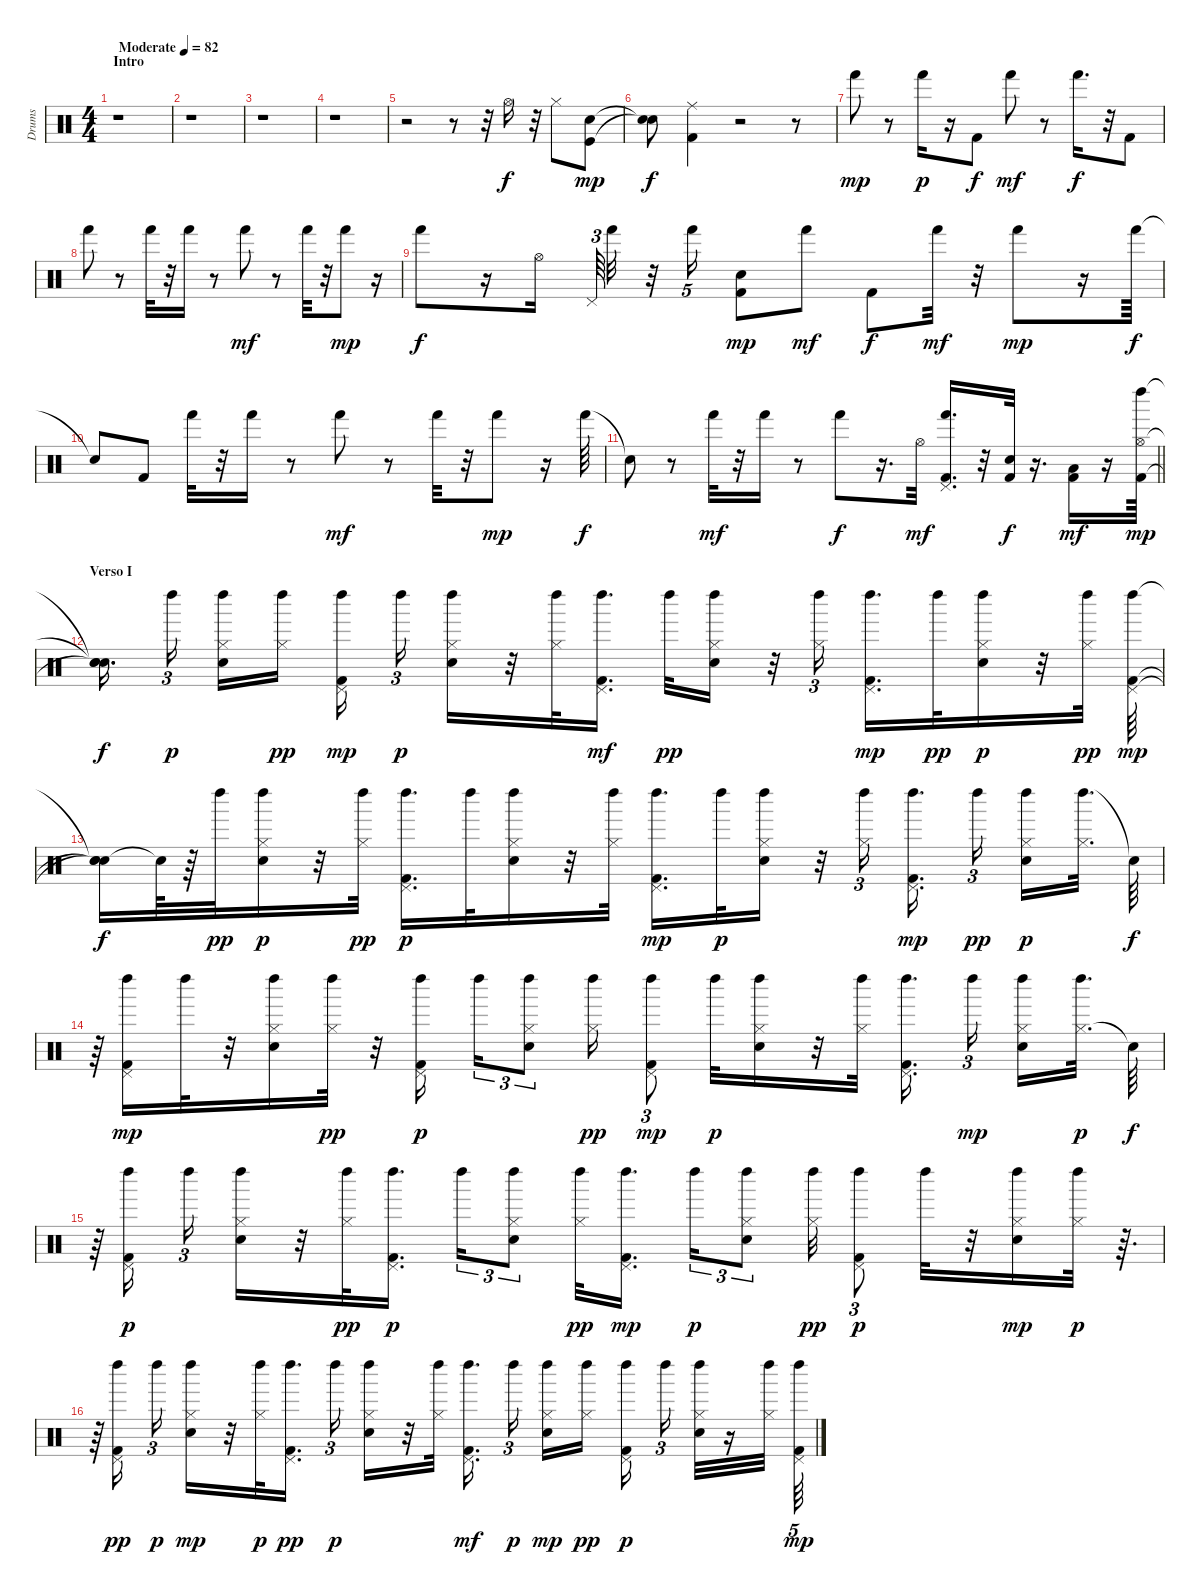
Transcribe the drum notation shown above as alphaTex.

\track ("Drums" "Drums") {instrument percussion}
\staff {score}
\articulation defaults
\ts (4 4)
\section ("" "Intro")
\tempo (82 "Moderate")
\clef neutral
\ks c
r.1{dy f} |
r.1 |
r.1 |
r.1 |
r.2 r.8 r.32 "Hi-Hat (open)".16 r.32 "Hi-Hat (closed)".8 ("Kick (hit)" "Electric Snare (hit)").8{dy mp} |
("Snare (hit)"{t} "Snare (hit)"{t}).8{dy f} ("Kick (hit) 2" "Ride (middle)").4 r.2 r.8 |
"Hand (hit)".8{dy mp} r.8 "Hand (hit)".16{dy p} r.16 "Kick (hit) 2".8{dy f} "Hand (hit)".8{dy mf} r.8 "Hand (hit)".16{d dy f} r.32 "Kick (hit) 2".8 |
"Hand (hit)".8 r.8 "Hand (hit)".32 r.32 "Hand (hit)".16 r.8 "Hand (hit)".8{dy mf} r.8 "Hand (hit)".32 r.32 "Hand (hit)".8{dy mp} r.16 |
"Hand (hit)".8{dy f} r.16 "Hi-Hat (open)".16 "Pedal Hi-Hat (hit)".64{tu (3 2)} "Hand (hit)".32 r.32 "Hand (hit)".16{tu (5 4)} ("Kick (hit) 2" "Electric Snare (hit)").8{dy mp} "Hand (hit)".8{dy mf} "Kick (hit) 2".8{dy f} "Hand (hit)".32{dy mf} r.32 "Hand (hit)".8{dy mp} r.16 "Hand (hit)".64{dy f} |
"Snare (hit)"{t}.8 "Kick (hit) 2".8 "Hand (hit)".32 r.32 "Hand (hit)".16 r.8 "Hand (hit)".8{dy mf} r.8 "Hand (hit)".32 r.32 "Hand (hit)".8{dy mp} r.16 "Hand (hit)".64{dy f} |
\barLineRight lightlight "Snare (hit)"{t}.8
r.8 "Hand (hit)".32{dy mf} r.32 "Hand (hit)".16 r.8 "Hand (hit)".8{dy f} r.16{d} "Hi-Hat (open)".32{dy mf} ("Kick (hit) 2" "Pedal Hi-Hat (hit)" "Hand (hit)").16{d} r.32 ("Electric Snare (hit)" "Kick (hit) 2").32{dy f} r.16{d} ("Low Tom (hit)" "Kick (hit) 2").16{dy mf} r.16 ("Hi-Hat (open)" "Kick (hit) 2" "Left Maraca (hit)").64{dy mp balance 2} |
\section ("" "Verso I")
("Snare (hit)"{t} "Snare (hit)"{t} "Snare (hit)"{t}).16{d dy f beam splitsecondary} "Left Maraca (hit)".16{tu (3 2) dy p beam splitsecondary} ("Hi-Hat (closed)" "Hand Clap (hit)" "Left Maraca (hit)").16 ("Left Maraca (hit)" "Hi-Hat (closed)").16{dy pp} ("Pedal Hi-Hat (hit)" "Left Maraca (hit)" "Kick (hit) 2").16{dy mp beam splitsecondary} "Left Maraca (hit)".16{tu (3 2) dy p} ("Hi-Hat (closed)" "Left Maraca (hit)" "Hand Clap (hit)").16 r.32 ("Hi-Hat (closed)" "Left Maraca (hit)").32 ("Pedal Hi-Hat (hit)" "Left Maraca (hit)" "Kick (hit) 2").16{d dy mf} "Left Maraca (hit)".32{dy pp} ("Hi-Hat (closed)" "Left Maraca (hit)" "Hand Clap (hit)").16 r.32 ("Hi-Hat (closed)" "Left Maraca (hit)").16{tu (3 2)} ("Pedal Hi-Hat (hit)" "Left Maraca (hit)" "Kick (hit) 2").16{d dy mp} "Left Maraca (hit)".32{dy pp} ("Hi-Hat (closed)" "Hand Clap (hit)" "Left Maraca (hit)").16{dy p} r.32 ("Hi-Hat (closed)" "Left Maraca (hit)").32{dy pp} ("Pedal Hi-Hat (hit)" "Left Maraca (hit)" "Kick (hit) 2").64{dy mp} |
("Snare (hit)"{t} "Snare (hit)"{t} "Snare (hit)"{t}).16{dy f} "Snare (hit)"{t}.64 r.64 "Left Maraca (hit)".32{dy pp} ("Hi-Hat (closed)" "Left Maraca (hit)" "Hand Clap (hit)").16{dy p} r.32 ("Left Maraca (hit)" "Hi-Hat (closed)").32{dy pp} ("Pedal Hi-Hat (hit)" "Left Maraca (hit)" "Kick (hit) 2").16{d dy p} "Left Maraca (hit)".32 ("Hi-Hat (closed)" "Hand Clap (hit)" "Left Maraca (hit)").16 r.32 ("Hi-Hat (closed)" "Left Maraca (hit)").32 ("Pedal Hi-Hat (hit)" "Left Maraca (hit)" "Kick (hit) 2").16{d dy mp} "Left Maraca (hit)".32{dy p} ("Hi-Hat (closed)" "Left Maraca (hit)" "Hand Clap (hit)").16 r.32 ("Hi-Hat (closed)" "Left Maraca (hit)").16{tu (3 2)} ("Pedal Hi-Hat (hit)" "Left Maraca (hit)" "Kick (hit) 2").16{d dy mp beam splitsecondary} "Left Maraca (hit)".16{tu (3 2) dy pp beam splitsecondary} ("Hi-Hat (closed)" "Hand Clap (hit)" "Left Maraca (hit)").16{dy p} ("Left Maraca (hit)" "Hi-Hat (closed)").32{d} "Snare (hit)"{t}.64{dy f} |
r.64 ("Pedal Hi-Hat (hit)" "Left Maraca (hit)" "Kick (hit) 2").16{dy mp} "Left Maraca (hit)".32 r.32 ("Hi-Hat (closed)" "Hand Clap (hit)" "Left Maraca (hit)").16 ("Left Maraca (hit)" "Hi-Hat (closed)").32{dy pp} r.32 ("Left Maraca (hit)" "Kick (hit) 2" "Pedal Hi-Hat (hit)").16{dy p beam splitsecondary} "Left Maraca (hit)".16{tu (3 2)} ("Hi-Hat (closed)" "Hand Clap (hit)" "Left Maraca (hit)").8{tu (3 2)} ("Left Maraca (hit)" "Hi-Hat (closed)").16{dy pp} ("Pedal Hi-Hat (hit)" "Left Maraca (hit)" "Kick (hit) 2").8{tu (3 2) dy mp} "Left Maraca (hit)".32{dy p} ("Hi-Hat (closed)" "Hand Clap (hit)" "Left Maraca (hit)").16 r.32 ("Left Maraca (hit)" "Hi-Hat (closed)").32 ("Pedal Hi-Hat (hit)" "Left Maraca (hit)" "Kick (hit) 2").16{d beam splitsecondary} "Left Maraca (hit)".16{tu (3 2) dy mp beam splitsecondary} ("Hi-Hat (closed)" "Left Maraca (hit)" "Hand Clap (hit)").16 ("Hi-Hat (closed)" "Left Maraca (hit)").32{d dy p} "Snare (hit)"{t}.64{dy f} |
r.64 ("Left Maraca (hit)" "Kick (hit) 2" "Pedal Hi-Hat (hit)").16{dy p beam splitsecondary} "Left Maraca (hit)".16{tu (3 2)} ("Hi-Hat (closed)" "Left Maraca (hit)" "Hand Clap (hit)").16 r.32 ("Left Maraca (hit)" "Hi-Hat (closed)").32{dy pp} ("Pedal Hi-Hat (hit)" "Left Maraca (hit)" "Kick (hit) 2").16{d dy p} "Left Maraca (hit)".16{tu (3 2)} ("Hi-Hat (closed)" "Left Maraca (hit)" "Hand Clap (hit)").8{tu (3 2)} ("Left Maraca (hit)" "Hi-Hat (closed)").32{dy pp} ("Pedal Hi-Hat (hit)" "Left Maraca (hit)" "Kick (hit) 2").16{d dy mp} "Left Maraca (hit)".16{tu (3 2) dy p} ("Hi-Hat (closed)" "Left Maraca (hit)" "Hand Clap (hit)").8{tu (3 2)} ("Left Maraca (hit)" "Hi-Hat (closed)").32{dy pp} ("Left Maraca (hit)" "Kick (hit) 2" "Pedal Hi-Hat (hit)").8{tu (3 2) dy p} "Left Maraca (hit)".32 r.32 ("Hi-Hat (closed)" "Left Maraca (hit)" "Hand Clap (hit)").16{dy mp} ("Left Maraca (hit)" "Hi-Hat (closed)").32{dy p} r.64{d} |
r.64 ("Left Maraca (hit)" "Kick (hit) 2" "Pedal Hi-Hat (hit)").16{dy pp beam splitsecondary} "Left Maraca (hit)".16{tu (3 2) dy p} ("Hi-Hat (closed)" "Hand Clap (hit)" "Left Maraca (hit)").16{dy mp} r.32 ("Hi-Hat (closed)" "Left Maraca (hit)").32{dy p} ("Left Maraca (hit)" "Kick (hit) 2" "Pedal Hi-Hat (hit)").16{d dy pp} "Left Maraca (hit)".16{tu (3 2) dy p} ("Hi-Hat (closed)" "Left Maraca (hit)" "Hand Clap (hit)").16 r.32 ("Left Maraca (hit)" "Hi-Hat (closed)").32 ("Pedal Hi-Hat (hit)" "Left Maraca (hit)" "Kick (hit) 2").16{d dy mf beam splitsecondary} "Left Maraca (hit)".16{tu (3 2) dy p beam splitsecondary} ("Hi-Hat (closed)" "Hand Clap (hit)" "Left Maraca (hit)").16{dy mp} ("Left Maraca (hit)" "Hi-Hat (closed)").16{dy pp} ("Pedal Hi-Hat (hit)" "Kick (hit) 2" "Left Maraca (hit)").16{dy p beam splitsecondary} "Left Maraca (hit)".16{tu (3 2)} ("Hi-Hat (closed)" "Hand Clap (hit)" "Left Maraca (hit)").32 r.16 ("Left Maraca (hit)" "Hi-Hat (closed)").32 ("Pedal Hi-Hat (hit)" "Left Maraca (hit)" "Kick (hit) 2").64{tu (5 4) dy mp}
